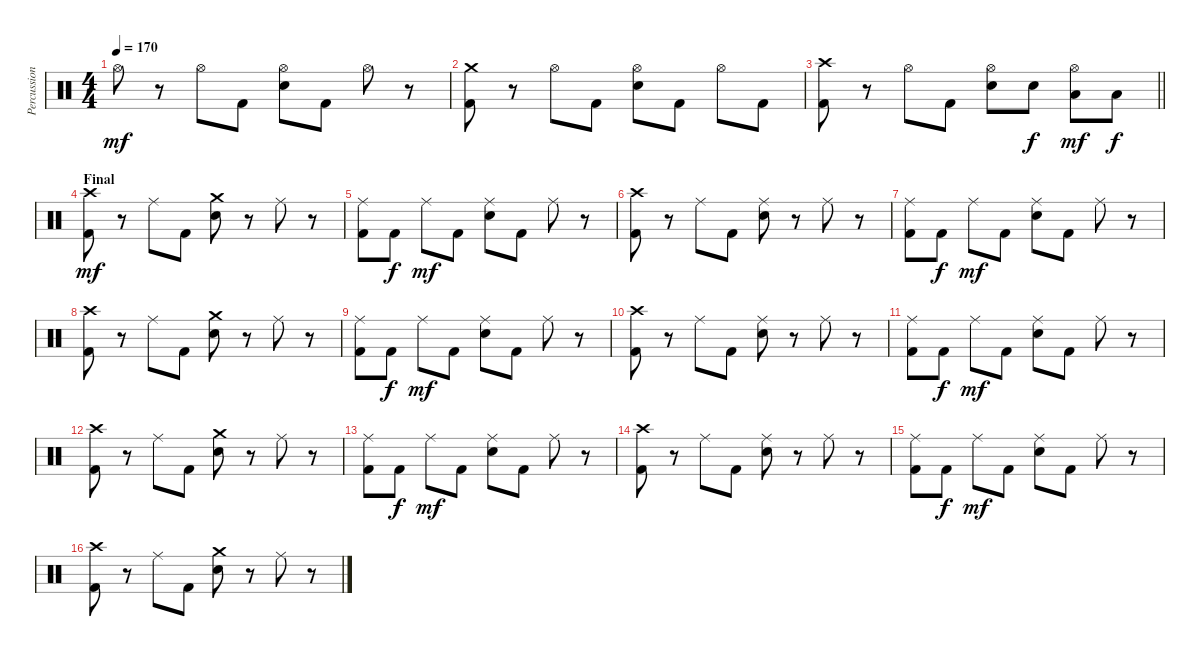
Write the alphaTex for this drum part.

\track ("Percussion" "Percussion") {instrument percussion}
\staff {score}
\articulation defaults
\ts (4 4)
\tempo 170
\clef neutral
\ks c "Hi-Hat (open)".8{dy mf}
r.8 "Hi-Hat (open)".8 "Kick (hit) 2".8 ("Hi-Hat (open)" "Electric Snare (hit)").8 "Kick (hit) 2".8 "Hi-Hat (open)".8 r.8 |
("Crash medium (hit)" "Kick (hit) 2").8 r.8 "Hi-Hat (open)".8 "Kick (hit) 2".8 ("Hi-Hat (open)" "Electric Snare (hit)").8 "Kick (hit) 2".8 "Hi-Hat (open)".8 "Kick (hit) 2".8 |
\barLineRight lightlight
("Crash high (hit)" "Kick (hit) 2").8 r.8 "Hi-Hat (open)".8 "Kick (hit) 2".8 ("Hi-Hat (open)" "Electric Snare (hit)").8 "Electric Snare (hit)".8{dy f} ("Hi-Hat (open)" "Low Tom (hit)").8{dy mf} "Low Floor Tom (hit)".8{dy f} |
\section ("" "Final")
("Crash high (hit)" "Kick (hit) 2").8{dy mf} r.8 "Ride (middle)".8 "Kick (hit) 2".8 ("Crash medium (hit)" "Electric Snare (hit)").8 r.8 "Ride (middle)".8 r.8 |
("Ride (middle)" "Kick (hit) 2").8 "Kick (hit) 2".8{dy f} "Ride (middle)".8{dy mf} "Kick (hit) 2".8 ("Ride (middle)" "Electric Snare (hit)").8 "Kick (hit) 2".8 "Ride (middle)".8 r.8 |
("Crash high (hit)" "Kick (hit) 2").8 r.8 "Ride (middle)".8 "Kick (hit) 2".8 ("Ride (middle)" "Electric Snare (hit)").8 r.8 "Ride (middle)".8 r.8 |
("Ride (middle)" "Kick (hit) 2").8 "Kick (hit) 2".8{dy f} "Ride (middle)".8{dy mf} "Kick (hit) 2".8 ("Ride (middle)" "Electric Snare (hit)").8 "Kick (hit) 2".8 "Ride (middle)".8 r.8 |
("Crash high (hit)" "Kick (hit) 2").8 r.8 "Ride (middle)".8 "Kick (hit) 2".8 ("Crash medium (hit)" "Electric Snare (hit)").8 r.8 "Ride (middle)".8 r.8 |
("Ride (middle)" "Kick (hit) 2").8 "Kick (hit) 2".8{dy f} "Ride (middle)".8{dy mf} "Kick (hit) 2".8 ("Ride (middle)" "Electric Snare (hit)").8 "Kick (hit) 2".8 "Ride (middle)".8 r.8 |
("Crash high (hit)" "Kick (hit) 2").8 r.8 "Ride (middle)".8 "Kick (hit) 2".8 ("Ride (middle)" "Electric Snare (hit)").8 r.8 "Ride (middle)".8 r.8 |
("Ride (middle)" "Kick (hit) 2").8 "Kick (hit) 2".8{dy f} "Ride (middle)".8{dy mf} "Kick (hit) 2".8 ("Ride (middle)" "Electric Snare (hit)").8 "Kick (hit) 2".8 "Ride (middle)".8 r.8 |
("Crash high (hit)" "Kick (hit) 2").8 r.8 "Ride (middle)".8 "Kick (hit) 2".8 ("Crash medium (hit)" "Electric Snare (hit)").8 r.8 "Ride (middle)".8 r.8 |
("Ride (middle)" "Kick (hit) 2").8 "Kick (hit) 2".8{dy f} "Ride (middle)".8{dy mf} "Kick (hit) 2".8 ("Ride (middle)" "Electric Snare (hit)").8 "Kick (hit) 2".8 "Ride (middle)".8 r.8 |
("Crash high (hit)" "Kick (hit) 2").8 r.8 "Ride (middle)".8 "Kick (hit) 2".8 ("Ride (middle)" "Electric Snare (hit)").8 r.8 "Ride (middle)".8 r.8 |
("Ride (middle)" "Kick (hit) 2").8 "Kick (hit) 2".8{dy f} "Ride (middle)".8{dy mf} "Kick (hit) 2".8 ("Ride (middle)" "Electric Snare (hit)").8 "Kick (hit) 2".8 "Ride (middle)".8 r.8 |
("Crash high (hit)" "Kick (hit) 2").8 r.8 "Ride (middle)".8 "Kick (hit) 2".8 ("Crash medium (hit)" "Electric Snare (hit)").8 r.8 "Ride (middle)".8 r.8
